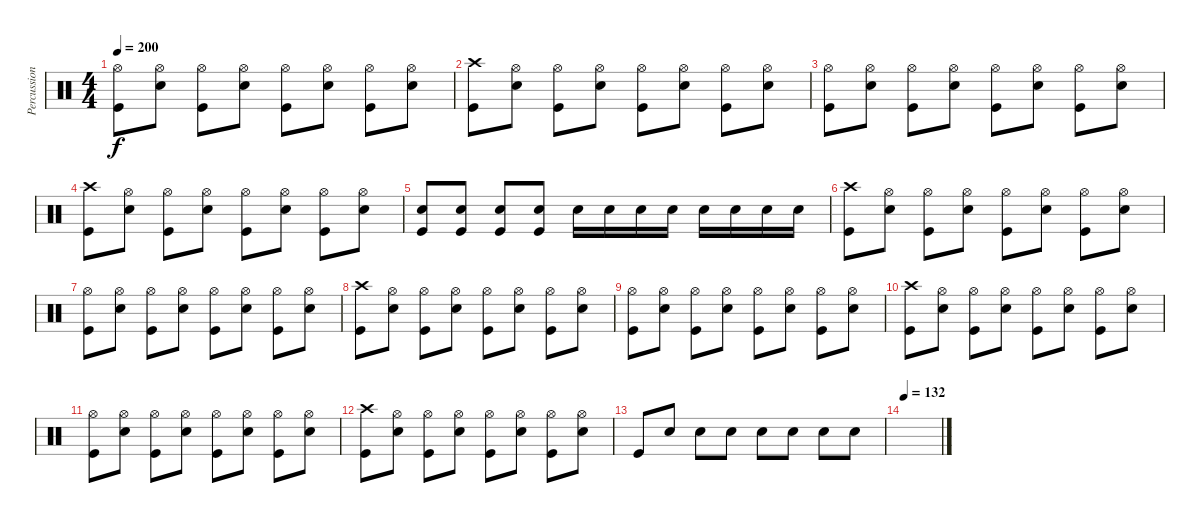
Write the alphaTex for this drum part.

\track ("Percussion" "Percussion") {instrument percussion}
\staff {score}
\articulation defaults
\ts (4 4)
\tempo 200
\clef neutral
\ks c
("Hi-Hat (open)" "Kick (hit)").8{dy f} ("Hi-Hat (open)" "Electric Snare (hit)").8 ("Hi-Hat (open)" "Kick (hit)").8 ("Hi-Hat (open)" "Electric Snare (hit)").8 ("Hi-Hat (open)" "Kick (hit)").8 ("Hi-Hat (open)" "Electric Snare (hit)").8 ("Hi-Hat (open)" "Kick (hit)").8 ("Hi-Hat (open)" "Electric Snare (hit)").8 |
("Crash high (hit)" "Kick (hit)").8 ("Hi-Hat (open)" "Electric Snare (hit)").8 ("Hi-Hat (open)" "Kick (hit)").8 ("Hi-Hat (open)" "Electric Snare (hit)").8 ("Hi-Hat (open)" "Kick (hit)").8 ("Hi-Hat (open)" "Electric Snare (hit)").8 ("Hi-Hat (open)" "Kick (hit)").8 ("Hi-Hat (open)" "Electric Snare (hit)").8 |
("Hi-Hat (open)" "Kick (hit)").8 ("Hi-Hat (open)" "Electric Snare (hit)").8 ("Hi-Hat (open)" "Kick (hit)").8 ("Hi-Hat (open)" "Electric Snare (hit)").8 ("Hi-Hat (open)" "Kick (hit)").8 ("Hi-Hat (open)" "Electric Snare (hit)").8 ("Hi-Hat (open)" "Kick (hit)").8 ("Hi-Hat (open)" "Electric Snare (hit)").8 |
("Crash high (hit)" "Kick (hit)").8 ("Hi-Hat (open)" "Electric Snare (hit)").8 ("Hi-Hat (open)" "Kick (hit)").8 ("Hi-Hat (open)" "Electric Snare (hit)").8 ("Hi-Hat (open)" "Kick (hit)").8 ("Hi-Hat (open)" "Electric Snare (hit)").8 ("Hi-Hat (open)" "Kick (hit)").8 ("Hi-Hat (open)" "Electric Snare (hit)").8 |
("Electric Snare (hit)" "Kick (hit)").8 ("Electric Snare (hit)" "Kick (hit)").8 ("Electric Snare (hit)" "Kick (hit)").8 ("Electric Snare (hit)" "Kick (hit)").8 "Electric Snare (hit)".16 "Electric Snare (hit)".16 "Electric Snare (hit)".16 "Electric Snare (hit)".16 "Electric Snare (hit)".16 "Electric Snare (hit)".16 "Electric Snare (hit)".16 "Electric Snare (hit)".16 |
("Crash high (hit)" "Kick (hit)").8 ("Hi-Hat (open)" "Electric Snare (hit)").8 ("Hi-Hat (open)" "Kick (hit)").8 ("Hi-Hat (open)" "Electric Snare (hit)").8 ("Hi-Hat (open)" "Kick (hit)").8 ("Hi-Hat (open)" "Electric Snare (hit)").8 ("Hi-Hat (open)" "Kick (hit)").8 ("Hi-Hat (open)" "Electric Snare (hit)").8 |
("Hi-Hat (open)" "Kick (hit)").8 ("Hi-Hat (open)" "Electric Snare (hit)").8 ("Hi-Hat (open)" "Kick (hit)").8 ("Hi-Hat (open)" "Electric Snare (hit)").8 ("Hi-Hat (open)" "Kick (hit)").8 ("Hi-Hat (open)" "Electric Snare (hit)").8 ("Hi-Hat (open)" "Kick (hit)").8 ("Hi-Hat (open)" "Electric Snare (hit)").8 |
("Crash high (hit)" "Kick (hit)").8 ("Hi-Hat (open)" "Electric Snare (hit)").8 ("Hi-Hat (open)" "Kick (hit)").8 ("Hi-Hat (open)" "Electric Snare (hit)").8 ("Hi-Hat (open)" "Kick (hit)").8 ("Hi-Hat (open)" "Electric Snare (hit)").8 ("Hi-Hat (open)" "Kick (hit)").8 ("Hi-Hat (open)" "Electric Snare (hit)").8 |
("Hi-Hat (open)" "Kick (hit)").8 ("Hi-Hat (open)" "Electric Snare (hit)").8 ("Hi-Hat (open)" "Kick (hit)").8 ("Hi-Hat (open)" "Electric Snare (hit)").8 ("Hi-Hat (open)" "Kick (hit)").8 ("Hi-Hat (open)" "Electric Snare (hit)").8 ("Hi-Hat (open)" "Kick (hit)").8 ("Hi-Hat (open)" "Electric Snare (hit)").8 |
("Crash high (hit)" "Kick (hit)").8 ("Hi-Hat (open)" "Electric Snare (hit)").8 ("Hi-Hat (open)" "Kick (hit)").8 ("Hi-Hat (open)" "Electric Snare (hit)").8 ("Hi-Hat (open)" "Kick (hit)").8 ("Hi-Hat (open)" "Electric Snare (hit)").8 ("Hi-Hat (open)" "Kick (hit)").8 ("Hi-Hat (open)" "Electric Snare (hit)").8 |
("Hi-Hat (open)" "Kick (hit)").8 ("Hi-Hat (open)" "Electric Snare (hit)").8 ("Hi-Hat (open)" "Kick (hit)").8 ("Hi-Hat (open)" "Electric Snare (hit)").8 ("Hi-Hat (open)" "Kick (hit)").8 ("Hi-Hat (open)" "Electric Snare (hit)").8 ("Hi-Hat (open)" "Kick (hit)").8 ("Hi-Hat (open)" "Electric Snare (hit)").8 |
("Crash high (hit)" "Kick (hit)").8 ("Hi-Hat (open)" "Electric Snare (hit)").8 ("Hi-Hat (open)" "Kick (hit)").8 ("Hi-Hat (open)" "Electric Snare (hit)").8 ("Hi-Hat (open)" "Kick (hit)").8 ("Hi-Hat (open)" "Electric Snare (hit)").8 ("Hi-Hat (open)" "Kick (hit)").8 ("Hi-Hat (open)" "Electric Snare (hit)").8 |
"Kick (hit)".8 "Electric Snare (hit)".8 "Electric Snare (hit)".8 "Electric Snare (hit)".8 "Electric Snare (hit)".8 "Electric Snare (hit)".8 "Electric Snare (hit)".8 "Electric Snare (hit)".8 |
\tempo 132
